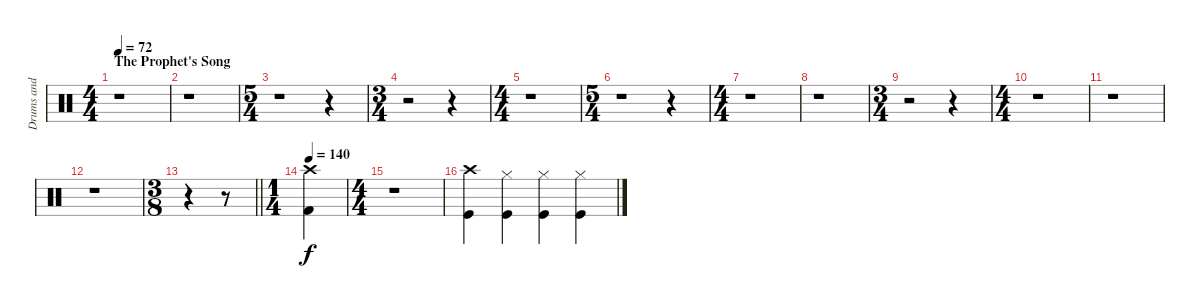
\track ("Drums and percussion" "Drums and ") {instrument percussion}
\staff {score}
\articulation defaults
\ts (4 4)
\section ("" "The Prophet's Song")
\tempo 72
\clef neutral
\ks c
r.1{dy f} |
r.1 |
\ts (5 4)
r.1 r.4 |
\ts (3 4)
r.2 r.4 |
\ts (4 4)
r.1 |
\ts (5 4)
r.1 r.4 |
\ts (4 4)
r.1 |
r.1 |
\ts (3 4)
r.2 r.4 |
\ts (4 4)
r.1 |
r.1 |
r.1 |
\ts (3 8)
\barLineRight lightlight
r.4 r.8 |
\ts (1 4)
\tempo 140
("Crash high (hit)" "Kick (hit) 2").4{volume 13} |
\ts (4 4)
r.1 |
("Crash high (hit)" "Kick (hit)").4 ("Hi-Hat (closed)" "Kick (hit)").4 ("Hi-Hat (closed)" "Kick (hit)").4 ("Hi-Hat (closed)" "Kick (hit)").4
